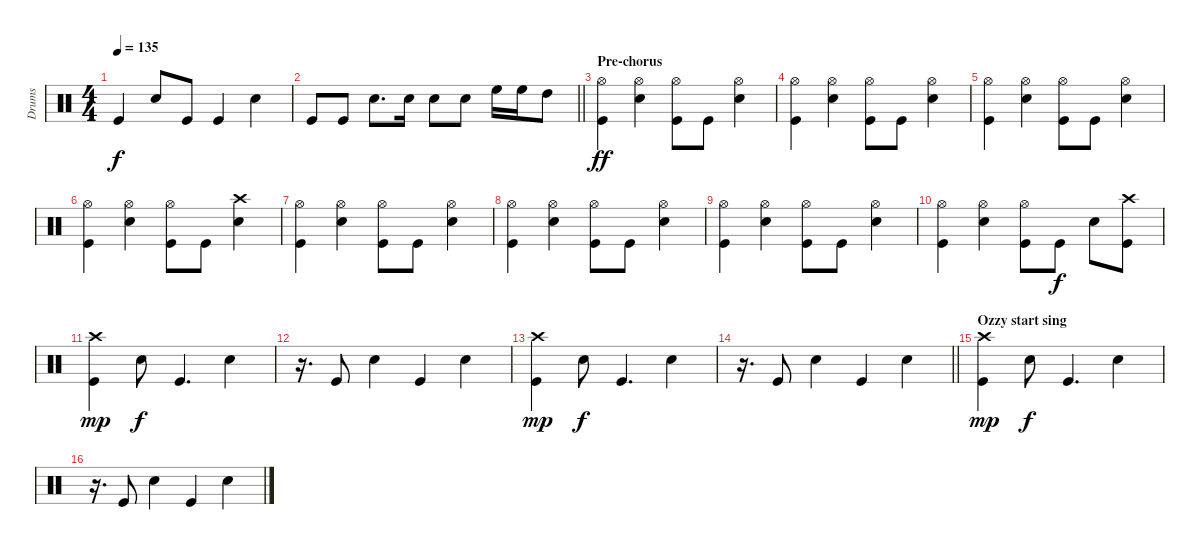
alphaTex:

\track ("Drums" "Drums") {instrument percussion}
\staff {score}
\articulation defaults
\ts (4 4)
\tempo 135
\clef neutral
\ks c "Kick (hit)".4{dy f} "Snare (hit) 2".8 "Kick (hit)".8 "Kick (hit)".4 "Snare (hit) 2".4
|
\barLineRight lightlight "Kick (hit)".8 "Kick (hit)".8 "Snare (hit) 2".8{d} "Snare (hit) 2".16 "Snare (hit) 2".8 "Snare (hit) 2".8 "High Floor Tom (hit)".16 "High Floor Tom (hit)".16 "High Tom (hit)".8
|
\section ("" "Pre-chorus")
("Kick (hit)" "Hi-Hat (open)").4{dy ff} ("Snare (hit) 2" "Hi-Hat (open)").4 ("Kick (hit)" "Hi-Hat (open)").8 "Kick (hit)".8 ("Snare (hit) 2" "Hi-Hat (open)").4 |
("Kick (hit)" "Hi-Hat (open)").4 ("Snare (hit) 2" "Hi-Hat (open)").4 ("Kick (hit)" "Hi-Hat (open)").8 "Kick (hit)".8 ("Snare (hit) 2" "Hi-Hat (open)").4 |
("Kick (hit)" "Hi-Hat (open)").4 ("Snare (hit) 2" "Hi-Hat (open)").4 ("Kick (hit)" "Hi-Hat (open)").8 "Kick (hit)".8 ("Snare (hit) 2" "Hi-Hat (open)").4 |
("Kick (hit)" "Hi-Hat (open)").4 ("Snare (hit) 2" "Hi-Hat (open)").4 ("Kick (hit)" "Hi-Hat (open)").8 "Kick (hit)".8 ("Snare (hit) 2" "Crash high (hit)").4 |
("Kick (hit)" "Hi-Hat (open)").4 ("Snare (hit) 2" "Hi-Hat (open)").4 ("Kick (hit)" "Hi-Hat (open)").8 "Kick (hit)".8 ("Snare (hit) 2" "Hi-Hat (open)").4 |
("Kick (hit)" "Hi-Hat (open)").4 ("Snare (hit) 2" "Hi-Hat (open)").4 ("Kick (hit)" "Hi-Hat (open)").8 "Kick (hit)".8 ("Snare (hit) 2" "Hi-Hat (open)").4 |
("Kick (hit)" "Hi-Hat (open)").4 ("Snare (hit) 2" "Hi-Hat (open)").4 ("Kick (hit)" "Hi-Hat (open)").8 "Kick (hit)".8 ("Snare (hit) 2" "Hi-Hat (open)").4 |
("Kick (hit)" "Hi-Hat (open)").4 ("Snare (hit) 2" "Hi-Hat (open)").4 ("Kick (hit)" "Hi-Hat (open)").8 "Kick (hit)".8{dy f} "Snare (hit) 2".8 ("Crash high (hit)" "Kick (hit)").8 |
("Kick (hit)" "Crash high (hit)").4{dy mp} "Snare (hit) 2".8{dy f} "Kick (hit)".4{d} "Snare (hit) 2".4 |
r.16{d} "Kick (hit)".8 "Snare (hit) 2".4 "Kick (hit)".4 "Snare (hit) 2".4 |
("Kick (hit)" "Crash high (hit)").4{dy mp} "Snare (hit) 2".8{dy f} "Kick (hit)".4{d} "Snare (hit) 2".4 |
\barLineRight lightlight
r.16{d} "Kick (hit)".8 "Snare (hit) 2".4 "Kick (hit)".4 "Snare (hit) 2".4 |
\section ("" "Ozzy start sing")
("Kick (hit)" "Crash high (hit)").4{dy mp} "Snare (hit) 2".8{dy f} "Kick (hit)".4{d} "Snare (hit) 2".4 |
r.16{d} "Kick (hit)".8 "Snare (hit) 2".4 "Kick (hit)".4 "Snare (hit) 2".4
